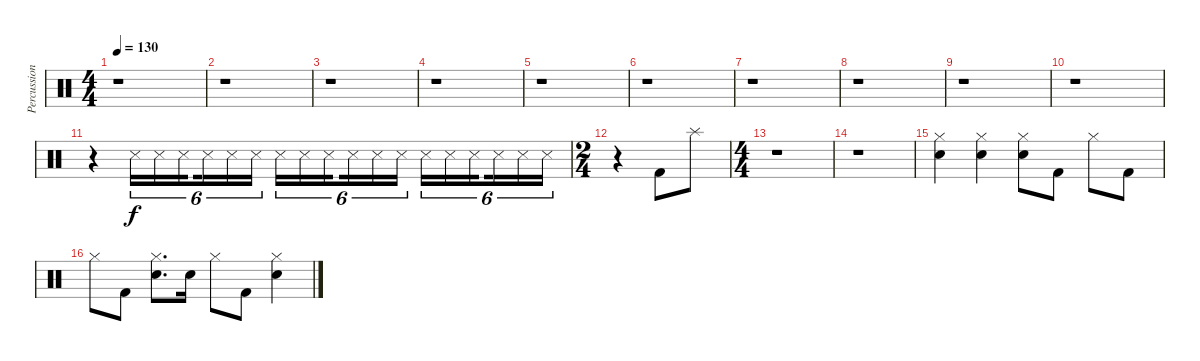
\track ("Percussion" "Percussion") {instrument percussion}
\staff {score}
\articulation defaults
\ts (4 4)
\tempo 130
\clef neutral
\ks c
r.1{dy f} |
r.1 |
r.1 |
r.1 |
r.1 |
r.1 |
r.1 |
r.1 |
r.1 |
r.1 |
r.4 "Snare (side stick) 3".16{tu (6 4)} "Snare (side stick) 3".16{tu (6 4)} "Snare (side stick) 3".16{tu (6 4) beam splitsecondary} "Snare (side stick) 3".16{tu (6 4)} "Snare (side stick) 3".16{tu (6 4)} "Snare (side stick) 3".16{tu (6 4)} "Snare (side stick) 3".16{tu (6 4)} "Snare (side stick) 3".16{tu (6 4)} "Snare (side stick) 3".16{tu (6 4) beam splitsecondary} "Snare (side stick) 3".16{tu (6 4)} "Snare (side stick) 3".16{tu (6 4)} "Snare (side stick) 3".16{tu (6 4)} "Snare (side stick) 3".16{tu (6 4)} "Snare (side stick) 3".16{tu (6 4)} "Snare (side stick) 3".16{tu (6 4) beam splitsecondary} "Snare (side stick) 3".16{tu (6 4)} "Snare (side stick) 3".16{tu (6 4)} "Snare (side stick) 3".16{tu (6 4)} |
\ts (2 4)
r.4 "Kick (hit) 2".8 "Splash (hit)".8 |
\ts (4 4)
r.1 |
r.1 |
("Snare (hit) 2" "Hi-Hat (closed)").4 ("Snare (hit) 2" "Hi-Hat (closed)").4 ("Snare (hit) 2" "Hi-Hat (closed)").8 "Kick (hit) 2".8 "Hi-Hat (closed)".8 "Kick (hit) 2".8 |
"Hi-Hat (closed)".8 "Kick (hit) 2".8 ("Snare (hit) 2" "Hi-Hat (closed)").8{d} "Snare (hit) 2".16 "Hi-Hat (closed)".8 "Kick (hit) 2".8 ("Snare (hit) 2" "Hi-Hat (closed)").4
